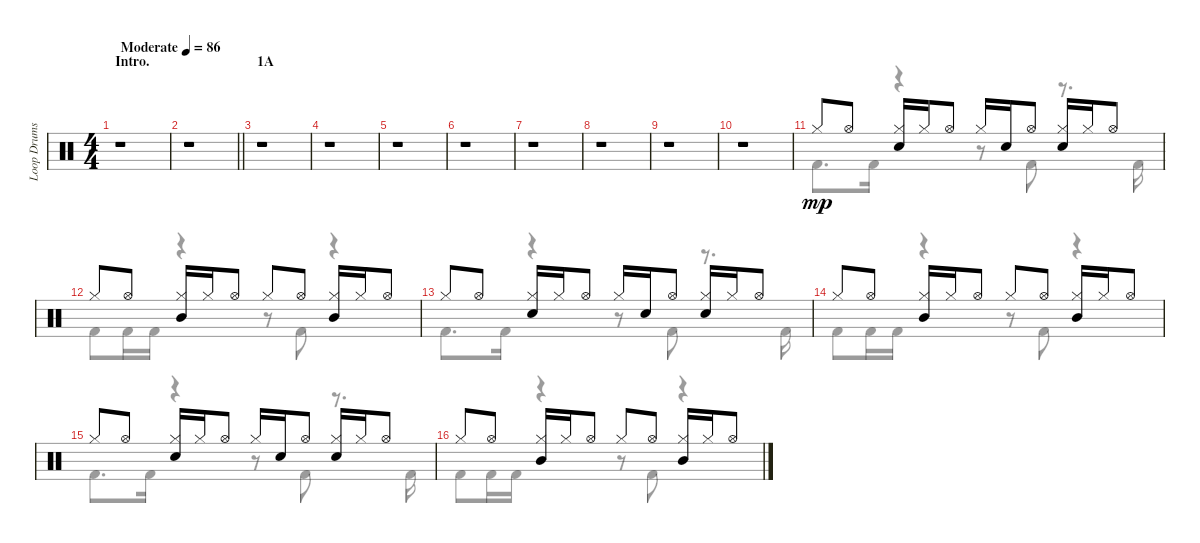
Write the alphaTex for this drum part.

\track ("Loop Drums II" "Loop Drums") {instrument percussion}
\staff {score}
\articulation defaults
\voice
\ts (4 4)
\section ("" "Intro.")
\tempo (86 "Moderate")
\clef neutral
\ks c
r.1{dy mp} |
\barLineRight lightlight
r.1 |
\section ("" "1A")
r.1 |
r.1 |
r.1 |
r.1 |
r.1 |
r.1 |
r.1 |
r.1 |
"Hi-Hat (closed)".8 "Hi-Hat (open)".8 ("Hi-Hat (closed)" "Electric Snare (hit)").16 "Hi-Hat (closed)".16 "Hi-Hat (open)".8 "Hi-Hat (closed)".16 "Electric Snare (hit)".16 "Hi-Hat (open)".8 ("Hi-Hat (closed)" "Electric Snare (hit)").16 "Hi-Hat (closed)".16 "Hi-Hat (open)".8 |
"Hi-Hat (closed)".8 "Hi-Hat (open)".8 ("Hi-Hat (closed)" "Mid Tom (hit)").16 "Hi-Hat (closed)".16 "Hi-Hat (open)".8 "Hi-Hat (closed)".8 "Hi-Hat (open)".8 ("Hi-Hat (closed)" "Mid Tom (hit)").16 "Hi-Hat (closed)".16 "Hi-Hat (open)".8 |
"Hi-Hat (closed)".8 "Hi-Hat (open)".8 ("Hi-Hat (closed)" "Electric Snare (hit)").16 "Hi-Hat (closed)".16 "Hi-Hat (open)".8 "Hi-Hat (closed)".16 "Electric Snare (hit)".16 "Hi-Hat (open)".8 ("Hi-Hat (closed)" "Electric Snare (hit)").16 "Hi-Hat (closed)".16 "Hi-Hat (open)".8 |
"Hi-Hat (closed)".8 "Hi-Hat (open)".8 ("Hi-Hat (closed)" "Mid Tom (hit)").16 "Hi-Hat (closed)".16 "Hi-Hat (open)".8 "Hi-Hat (closed)".8 "Hi-Hat (open)".8 ("Hi-Hat (closed)" "Mid Tom (hit)").16 "Hi-Hat (closed)".16 "Hi-Hat (open)".8 |
"Hi-Hat (closed)".8 "Hi-Hat (open)".8 ("Hi-Hat (closed)" "Electric Snare (hit)").16 "Hi-Hat (closed)".16 "Hi-Hat (open)".8 "Hi-Hat (closed)".16 "Electric Snare (hit)".16 "Hi-Hat (open)".8 ("Hi-Hat (closed)" "Electric Snare (hit)").16 "Hi-Hat (closed)".16 "Hi-Hat (open)".8 |
"Hi-Hat (closed)".8 "Hi-Hat (open)".8 ("Hi-Hat (closed)" "Mid Tom (hit)").16 "Hi-Hat (closed)".16 "Hi-Hat (open)".8 "Hi-Hat (closed)".8 "Hi-Hat (open)".8 ("Hi-Hat (closed)" "Mid Tom (hit)").16 "Hi-Hat (closed)".16 "Hi-Hat (open)".8
\voice
\clef neutral
\ottava regular
\simile none
\ks c
r.1{dy mp} |
\barLineRight lightlight
r.1 |
r.1 |
r.1 |
r.1 |
r.1 |
r.1 |
r.1 |
r.1 |
r.1 |
"Kick (hit) 2".8{d} "Kick (hit) 2".16 r.4 r.8 "Kick (hit) 2".8 r.8{d} "Kick (hit) 2".16 |
"Kick (hit) 2".8 "Kick (hit) 2".16 "Kick (hit) 2".16 r.4 r.8 "Kick (hit) 2".8 r.4 |
"Kick (hit) 2".8{d} "Kick (hit) 2".16 r.4 r.8 "Kick (hit) 2".8 r.8{d} "Kick (hit) 2".16 |
"Kick (hit) 2".8 "Kick (hit) 2".16 "Kick (hit) 2".16 r.4 r.8 "Kick (hit) 2".8 r.4 |
"Kick (hit) 2".8{d} "Kick (hit) 2".16 r.4 r.8 "Kick (hit) 2".8 r.8{d} "Kick (hit) 2".16 |
"Kick (hit) 2".8 "Kick (hit) 2".16 "Kick (hit) 2".16 r.4 r.8 "Kick (hit) 2".8 r.4
